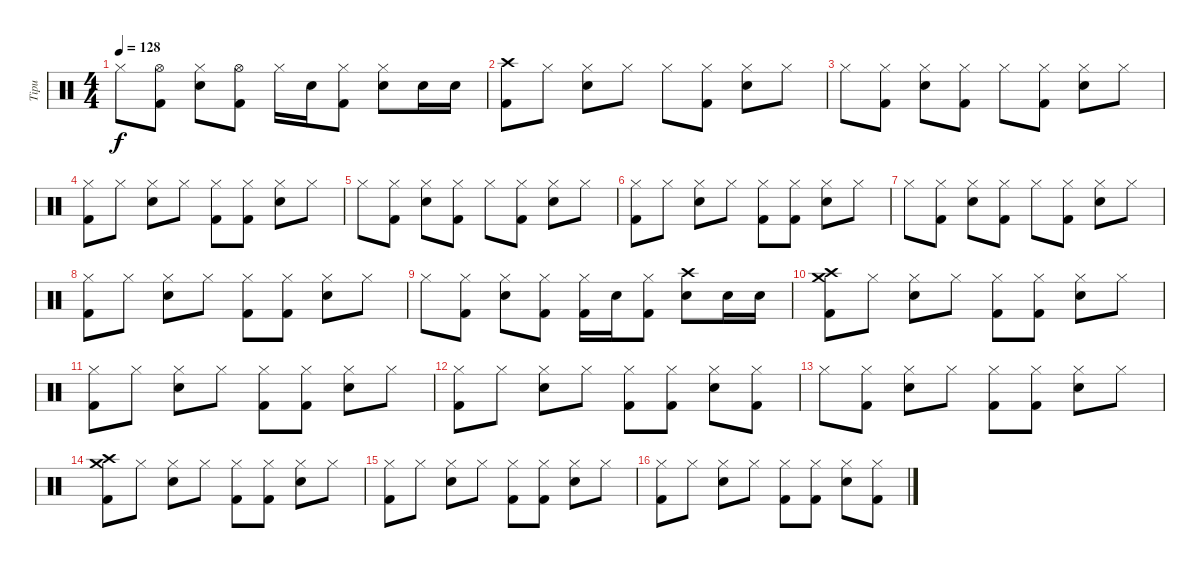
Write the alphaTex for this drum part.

\track ("Tipu" "Tipu") {instrument percussion}
\staff {score}
\articulation defaults
\ts (4 4)
\tempo 128
\clef neutral
\ks c "Hi-Hat (closed)".8{dy f}
("Hi-Hat (open)" "Kick (hit) 2").8 ("Hi-Hat (closed)" "Electric Snare (hit)").8 ("Hi-Hat (open)" "Kick (hit) 2").8 "Hi-Hat (closed)".16 "Electric Snare (hit)".16 ("Hi-Hat (closed)" "Kick (hit) 2").8 ("Hi-Hat (closed)" "Electric Snare (hit)").8 "Electric Snare (hit)".16 "Electric Snare (hit)".16 |
("Crash high (hit)" "Kick (hit) 2").8 "Hi-Hat (closed)".8 ("Hi-Hat (closed)" "Electric Snare (hit)").8 "Hi-Hat (closed)".8 "Hi-Hat (closed)".8 ("Hi-Hat (closed)" "Kick (hit) 2").8 ("Hi-Hat (closed)" "Electric Snare (hit)").8 "Hi-Hat (closed)".8 |
"Hi-Hat (closed)".8 ("Hi-Hat (closed)" "Kick (hit) 2").8 ("Hi-Hat (closed)" "Electric Snare (hit)").8 ("Hi-Hat (closed)" "Kick (hit) 2").8 "Hi-Hat (closed)".8 ("Hi-Hat (closed)" "Kick (hit) 2").8 ("Hi-Hat (closed)" "Electric Snare (hit)").8 "Hi-Hat (closed)".8 |
("Hi-Hat (closed)" "Kick (hit) 2").8 "Hi-Hat (closed)".8 ("Hi-Hat (closed)" "Electric Snare (hit)").8 "Hi-Hat (closed)".8 ("Hi-Hat (closed)" "Kick (hit) 2").8 ("Hi-Hat (closed)" "Kick (hit) 2").8 ("Hi-Hat (closed)" "Electric Snare (hit)").8 "Hi-Hat (closed)".8 |
"Hi-Hat (closed)".8 ("Hi-Hat (closed)" "Kick (hit) 2").8 ("Hi-Hat (closed)" "Electric Snare (hit)").8 ("Hi-Hat (closed)" "Kick (hit) 2").8 "Hi-Hat (closed)".8 ("Hi-Hat (closed)" "Kick (hit) 2").8 ("Hi-Hat (closed)" "Electric Snare (hit)").8 "Hi-Hat (closed)".8 |
("Hi-Hat (closed)" "Kick (hit) 2").8 "Hi-Hat (closed)".8 ("Hi-Hat (closed)" "Electric Snare (hit)").8 "Hi-Hat (closed)".8 ("Hi-Hat (closed)" "Kick (hit) 2").8 ("Hi-Hat (closed)" "Kick (hit) 2").8 ("Hi-Hat (closed)" "Electric Snare (hit)").8 "Hi-Hat (closed)".8 |
"Hi-Hat (closed)".8 ("Hi-Hat (closed)" "Kick (hit) 2").8 ("Hi-Hat (closed)" "Electric Snare (hit)").8 ("Hi-Hat (closed)" "Kick (hit) 2").8 "Hi-Hat (closed)".8 ("Hi-Hat (closed)" "Kick (hit) 2").8 ("Hi-Hat (closed)" "Electric Snare (hit)").8 "Hi-Hat (closed)".8 |
("Hi-Hat (closed)" "Kick (hit) 2").8 "Hi-Hat (closed)".8 ("Hi-Hat (closed)" "Electric Snare (hit)").8 "Hi-Hat (closed)".8 ("Hi-Hat (closed)" "Kick (hit) 2").8 ("Hi-Hat (closed)" "Kick (hit) 2").8 ("Hi-Hat (closed)" "Electric Snare (hit)").8 "Hi-Hat (closed)".8 |
"Hi-Hat (closed)".8 ("Hi-Hat (closed)" "Kick (hit) 2").8 ("Hi-Hat (closed)" "Electric Snare (hit)").8 ("Hi-Hat (closed)" "Kick (hit) 2").8 ("Hi-Hat (closed)" "Kick (hit) 2").16 "Electric Snare (hit)".16 ("Hi-Hat (closed)" "Kick (hit) 2").8 ("Crash high (hit)" "Electric Snare (hit)").8 "Electric Snare (hit)".16 "Electric Snare (hit)".16 |
("Crash medium (hit)" "Crash high (hit)" "Kick (hit) 2").8 "Hi-Hat (closed)".8 ("Hi-Hat (closed)" "Electric Snare (hit)").8 "Hi-Hat (closed)".8 ("Hi-Hat (closed)" "Kick (hit) 2").8 ("Hi-Hat (closed)" "Kick (hit) 2").8 ("Hi-Hat (closed)" "Electric Snare (hit)").8 "Hi-Hat (closed)".8 |
("Hi-Hat (closed)" "Kick (hit) 2").8 "Hi-Hat (closed)".8 ("Hi-Hat (closed)" "Electric Snare (hit)").8 "Hi-Hat (closed)".8 ("Hi-Hat (closed)" "Kick (hit) 2").8 ("Hi-Hat (closed)" "Kick (hit) 2").8 ("Hi-Hat (closed)" "Electric Snare (hit)").8 "Hi-Hat (closed)".8 |
("Hi-Hat (closed)" "Kick (hit) 2").8 "Hi-Hat (closed)".8 ("Hi-Hat (closed)" "Electric Snare (hit)").8 "Hi-Hat (closed)".8 ("Hi-Hat (closed)" "Kick (hit) 2").8 ("Hi-Hat (closed)" "Kick (hit) 2").8 ("Hi-Hat (closed)" "Electric Snare (hit)").8 ("Hi-Hat (closed)" "Kick (hit) 2").8 |
"Hi-Hat (closed)".8 ("Hi-Hat (closed)" "Kick (hit) 2").8 ("Hi-Hat (closed)" "Electric Snare (hit)").8 "Hi-Hat (closed)".8 ("Hi-Hat (closed)" "Kick (hit) 2").8 ("Hi-Hat (closed)" "Kick (hit) 2").8 ("Hi-Hat (closed)" "Electric Snare (hit)").8 "Hi-Hat (closed)".8 |
("Crash medium (hit)" "Crash high (hit)" "Kick (hit) 2").8 "Hi-Hat (closed)".8 ("Hi-Hat (closed)" "Electric Snare (hit)").8 "Hi-Hat (closed)".8 ("Hi-Hat (closed)" "Kick (hit) 2").8 ("Hi-Hat (closed)" "Kick (hit) 2").8 ("Hi-Hat (closed)" "Electric Snare (hit)").8 "Hi-Hat (closed)".8 |
("Hi-Hat (closed)" "Kick (hit) 2").8 "Hi-Hat (closed)".8 ("Hi-Hat (closed)" "Electric Snare (hit)").8 "Hi-Hat (closed)".8 ("Hi-Hat (closed)" "Kick (hit) 2").8 ("Hi-Hat (closed)" "Kick (hit) 2").8 ("Hi-Hat (closed)" "Electric Snare (hit)").8 "Hi-Hat (closed)".8 |
("Hi-Hat (closed)" "Kick (hit) 2").8 "Hi-Hat (closed)".8 ("Hi-Hat (closed)" "Electric Snare (hit)").8 "Hi-Hat (closed)".8 ("Hi-Hat (closed)" "Kick (hit) 2").8 ("Hi-Hat (closed)" "Kick (hit) 2").8 ("Hi-Hat (closed)" "Electric Snare (hit)").8 ("Hi-Hat (closed)" "Kick (hit) 2").8
